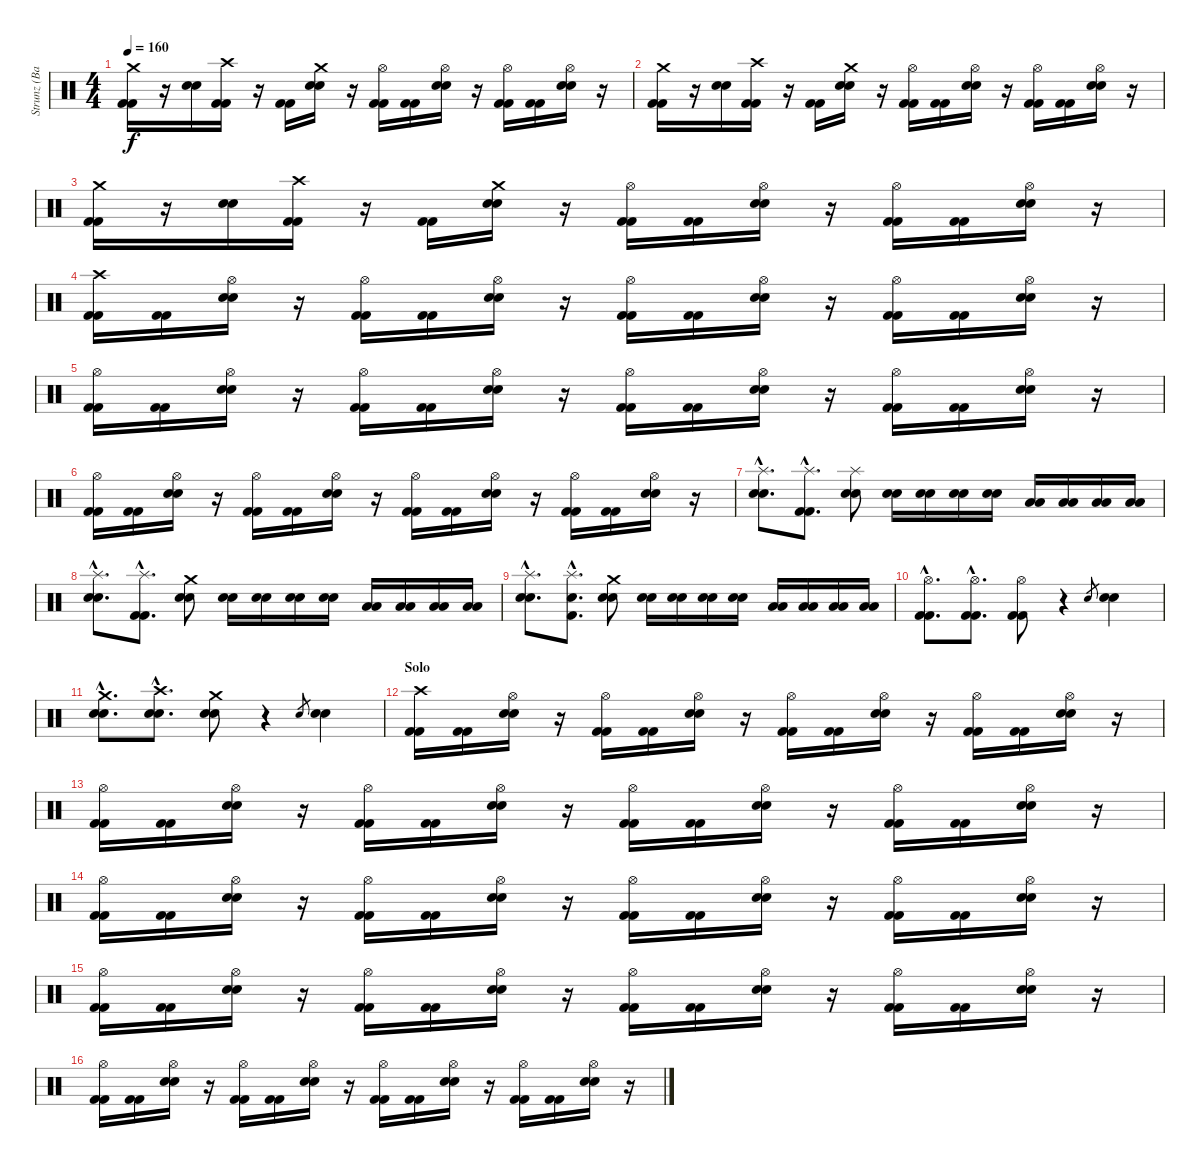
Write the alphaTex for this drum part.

\track ("Strunz (Bateria)" "Strunz (Ba") {instrument percussion}
\staff {score}
\articulation defaults
\ts (4 4)
\tempo 160
\clef neutral
\ks c
("Crash medium (hit)" "Kick (hit) 2" "Kick (hit) 2").16{dy f} r.16 ("Snare (hit) 2" "Snare (hit) 2").16 ("Crash high (hit)" "Kick (hit) 2" "Kick (hit) 2").16 r.16 ("Kick (hit) 2" "Kick (hit) 2").16 ("Crash medium (hit)" "Snare (hit) 2" "Snare (hit) 2").16 r.16 ("Hi-Hat (open)" "Kick (hit) 2" "Kick (hit) 2").16 ("Kick (hit) 2" "Kick (hit) 2").16 ("Hi-Hat (open)" "Snare (hit) 2" "Snare (hit) 2").16 r.16 ("Hi-Hat (open)" "Kick (hit) 2" "Kick (hit) 2").16 ("Kick (hit) 2" "Kick (hit) 2").16 ("Hi-Hat (open)" "Snare (hit) 2" "Snare (hit) 2").16 r.16 |
("Crash medium (hit)" "Kick (hit) 2" "Kick (hit) 2").16 r.16 ("Snare (hit) 2" "Snare (hit) 2").16 ("Crash high (hit)" "Kick (hit) 2" "Kick (hit) 2").16 r.16 ("Kick (hit) 2" "Kick (hit) 2").16 ("Crash medium (hit)" "Snare (hit) 2" "Snare (hit) 2").16 r.16 ("Hi-Hat (open)" "Kick (hit) 2" "Kick (hit) 2").16 ("Kick (hit) 2" "Kick (hit) 2").16 ("Hi-Hat (open)" "Snare (hit) 2" "Snare (hit) 2").16 r.16 ("Hi-Hat (open)" "Kick (hit) 2" "Kick (hit) 2").16 ("Kick (hit) 2" "Kick (hit) 2").16 ("Hi-Hat (open)" "Snare (hit) 2" "Snare (hit) 2").16 r.16 |
("Crash medium (hit)" "Kick (hit) 2" "Kick (hit) 2").16 r.16 ("Snare (hit) 2" "Snare (hit) 2").16 ("Crash high (hit)" "Kick (hit) 2" "Kick (hit) 2").16 r.16 ("Kick (hit) 2" "Kick (hit) 2").16 ("Crash medium (hit)" "Snare (hit) 2" "Snare (hit) 2").16 r.16 ("Hi-Hat (open)" "Kick (hit) 2" "Kick (hit) 2").16 ("Kick (hit) 2" "Kick (hit) 2").16 ("Hi-Hat (open)" "Snare (hit) 2" "Snare (hit) 2").16 r.16 ("Hi-Hat (open)" "Kick (hit) 2" "Kick (hit) 2").16 ("Kick (hit) 2" "Kick (hit) 2").16 ("Hi-Hat (open)" "Snare (hit) 2" "Snare (hit) 2").16 r.16 |
("Crash high (hit)" "Kick (hit) 2" "Kick (hit) 2").16 ("Kick (hit) 2" "Kick (hit) 2").16 ("Hi-Hat (open)" "Snare (hit) 2" "Snare (hit) 2").16 r.16 ("Hi-Hat (open)" "Kick (hit) 2" "Kick (hit) 2").16 ("Kick (hit) 2" "Kick (hit) 2").16 ("Hi-Hat (open)" "Snare (hit) 2" "Snare (hit) 2").16 r.16 ("Hi-Hat (open)" "Kick (hit) 2" "Kick (hit) 2").16 ("Kick (hit) 2" "Kick (hit) 2").16 ("Hi-Hat (open)" "Snare (hit) 2" "Snare (hit) 2").16 r.16 ("Hi-Hat (open)" "Kick (hit) 2" "Kick (hit) 2").16 ("Kick (hit) 2" "Kick (hit) 2").16 ("Hi-Hat (open)" "Snare (hit) 2" "Snare (hit) 2").16 r.16 |
("Hi-Hat (open)" "Kick (hit) 2" "Kick (hit) 2").16 ("Kick (hit) 2" "Kick (hit) 2").16 ("Hi-Hat (open)" "Snare (hit) 2" "Snare (hit) 2").16 r.16 ("Hi-Hat (open)" "Kick (hit) 2" "Kick (hit) 2").16 ("Kick (hit) 2" "Kick (hit) 2").16 ("Hi-Hat (open)" "Snare (hit) 2" "Snare (hit) 2").16 r.16 ("Hi-Hat (open)" "Kick (hit) 2" "Kick (hit) 2").16 ("Kick (hit) 2" "Kick (hit) 2").16 ("Hi-Hat (open)" "Snare (hit) 2" "Snare (hit) 2").16 r.16 ("Hi-Hat (open)" "Kick (hit) 2" "Kick (hit) 2").16 ("Kick (hit) 2" "Kick (hit) 2").16 ("Hi-Hat (open)" "Snare (hit) 2" "Snare (hit) 2").16 r.16 |
("Hi-Hat (open)" "Kick (hit) 2" "Kick (hit) 2").16 ("Kick (hit) 2" "Kick (hit) 2").16 ("Hi-Hat (open)" "Snare (hit) 2" "Snare (hit) 2").16 r.16 ("Hi-Hat (open)" "Kick (hit) 2" "Kick (hit) 2").16 ("Kick (hit) 2" "Kick (hit) 2").16 ("Hi-Hat (open)" "Snare (hit) 2" "Snare (hit) 2").16 r.16 ("Hi-Hat (open)" "Kick (hit) 2" "Kick (hit) 2").16 ("Kick (hit) 2" "Kick (hit) 2").16 ("Hi-Hat (open)" "Snare (hit) 2" "Snare (hit) 2").16 r.16 ("Hi-Hat (open)" "Kick (hit) 2" "Kick (hit) 2").16 ("Kick (hit) 2" "Kick (hit) 2").16 ("Hi-Hat (open)" "Snare (hit) 2" "Snare (hit) 2").16 r.16 |
("Splash (hit)"{hac} "Snare (hit) 2"{hac} "Snare (hit) 2"{hac}).8{d} ("Splash (hit)"{hac} "Kick (hit) 2"{hac} "Kick (hit) 2"{hac}).8{d} ("Splash (hit)" "Snare (hit) 2" "Snare (hit) 2").8 ("Snare (hit) 2" "Snare (hit) 2").16 ("Snare (hit) 2" "Snare (hit) 2").16 ("Snare (hit) 2" "Snare (hit) 2").16 ("Snare (hit) 2" "Snare (hit) 2").16 ("Low Tom (hit)" "Low Tom (hit)").16 ("Low Tom (hit)" "Low Tom (hit)").16 ("Low Floor Tom (hit)" "Low Floor Tom (hit)").16 ("Low Floor Tom (hit)" "Low Floor Tom (hit)").16 |
("Splash (hit)"{hac} "Snare (hit) 2"{hac} "Snare (hit) 2"{hac}).8{d} ("Splash (hit)"{hac} "Kick (hit) 2"{hac} "Kick (hit) 2"{hac}).8{d} ("Crash medium (hit)" "Snare (hit) 2" "Snare (hit) 2").8 ("Snare (hit) 2" "Snare (hit) 2").16 ("Snare (hit) 2" "Snare (hit) 2").16 ("Snare (hit) 2" "Snare (hit) 2").16 ("Snare (hit) 2" "Snare (hit) 2").16 ("Low Tom (hit)" "Low Tom (hit)").16 ("Low Tom (hit)" "Low Tom (hit)").16 ("Low Floor Tom (hit)" "Low Floor Tom (hit)").16 ("Low Floor Tom (hit)" "Low Floor Tom (hit)").16 |
("Splash (hit)"{hac} "Snare (hit) 2"{hac} "Snare (hit) 2"{hac}).8{d} ("Splash (hit)"{hac} "Kick (hit) 2"{hac} "Snare (hit) 2"{hac}).8{d} ("Crash medium (hit)" "Snare (hit) 2" "Snare (hit) 2").8 ("Snare (hit) 2" "Snare (hit) 2").16 ("Snare (hit) 2" "Snare (hit) 2").16 ("Snare (hit) 2" "Snare (hit) 2").16 ("Snare (hit) 2" "Snare (hit) 2").16 ("Low Tom (hit)" "Low Tom (hit)").16 ("Low Tom (hit)" "Low Tom (hit)").16 ("Low Floor Tom (hit)" "Low Floor Tom (hit)").16 ("Low Floor Tom (hit)" "Low Floor Tom (hit)").16 |
("Hi-Hat (open)"{hac} "Kick (hit) 2"{hac} "Kick (hit) 2"{hac}).8{d} ("Hi-Hat (open)"{hac} "Kick (hit) 2"{hac} "Kick (hit) 2"{hac}).8{d} ("Hi-Hat (open)" "Kick (hit) 2" "Kick (hit) 2").8 r.4 "Snare (hit) 2".8{gr} ("Snare (hit) 2" "Snare (hit) 2").4 |
("Crash medium (hit)"{hac} "Snare (hit) 2"{hac} "Snare (hit) 2"{hac}).8{d} ("Crash high (hit)"{hac} "Snare (hit) 2"{hac} "Snare (hit) 2"{hac}).8{d} ("Crash medium (hit)" "Snare (hit) 2" "Snare (hit) 2").8 r.4 "Snare (hit) 2".8{gr} ("Snare (hit) 2" "Snare (hit) 2").4 |
\section ("" "Solo")
("Crash high (hit)" "Kick (hit) 2" "Kick (hit) 2").16 ("Kick (hit) 2" "Kick (hit) 2").16 ("Hi-Hat (open)" "Snare (hit) 2" "Snare (hit) 2").16 r.16 ("Hi-Hat (open)" "Kick (hit) 2" "Kick (hit) 2").16 ("Kick (hit) 2" "Kick (hit) 2").16 ("Hi-Hat (open)" "Snare (hit) 2" "Snare (hit) 2").16 r.16 ("Hi-Hat (open)" "Kick (hit) 2" "Kick (hit) 2").16 ("Kick (hit) 2" "Kick (hit) 2").16 ("Hi-Hat (open)" "Snare (hit) 2" "Snare (hit) 2").16 r.16 ("Hi-Hat (open)" "Kick (hit) 2" "Kick (hit) 2").16 ("Kick (hit) 2" "Kick (hit) 2").16 ("Hi-Hat (open)" "Snare (hit) 2" "Snare (hit) 2").16 r.16 |
("Hi-Hat (open)" "Kick (hit) 2" "Kick (hit) 2").16 ("Kick (hit) 2" "Kick (hit) 2").16 ("Hi-Hat (open)" "Snare (hit) 2" "Snare (hit) 2").16 r.16 ("Hi-Hat (open)" "Kick (hit) 2" "Kick (hit) 2").16 ("Kick (hit) 2" "Kick (hit) 2").16 ("Hi-Hat (open)" "Snare (hit) 2" "Snare (hit) 2").16 r.16 ("Hi-Hat (open)" "Kick (hit) 2" "Kick (hit) 2").16 ("Kick (hit) 2" "Kick (hit) 2").16 ("Hi-Hat (open)" "Snare (hit) 2" "Snare (hit) 2").16 r.16 ("Hi-Hat (open)" "Kick (hit) 2" "Kick (hit) 2").16 ("Kick (hit) 2" "Kick (hit) 2").16 ("Hi-Hat (open)" "Snare (hit) 2" "Snare (hit) 2").16 r.16 |
("Hi-Hat (open)" "Kick (hit) 2" "Kick (hit) 2").16 ("Kick (hit) 2" "Kick (hit) 2").16 ("Hi-Hat (open)" "Snare (hit) 2" "Snare (hit) 2").16 r.16 ("Hi-Hat (open)" "Kick (hit) 2" "Kick (hit) 2").16 ("Kick (hit) 2" "Kick (hit) 2").16 ("Hi-Hat (open)" "Snare (hit) 2" "Snare (hit) 2").16 r.16 ("Hi-Hat (open)" "Kick (hit) 2" "Kick (hit) 2").16 ("Kick (hit) 2" "Kick (hit) 2").16 ("Hi-Hat (open)" "Snare (hit) 2" "Snare (hit) 2").16 r.16 ("Hi-Hat (open)" "Kick (hit) 2" "Kick (hit) 2").16 ("Kick (hit) 2" "Kick (hit) 2").16 ("Hi-Hat (open)" "Snare (hit) 2" "Snare (hit) 2").16 r.16 |
("Hi-Hat (open)" "Kick (hit) 2" "Kick (hit) 2").16 ("Kick (hit) 2" "Kick (hit) 2").16 ("Hi-Hat (open)" "Snare (hit) 2" "Snare (hit) 2").16 r.16 ("Hi-Hat (open)" "Kick (hit) 2" "Kick (hit) 2").16 ("Kick (hit) 2" "Kick (hit) 2").16 ("Hi-Hat (open)" "Snare (hit) 2" "Snare (hit) 2").16 r.16 ("Hi-Hat (open)" "Kick (hit) 2" "Kick (hit) 2").16 ("Kick (hit) 2" "Kick (hit) 2").16 ("Hi-Hat (open)" "Snare (hit) 2" "Snare (hit) 2").16 r.16 ("Hi-Hat (open)" "Kick (hit) 2" "Kick (hit) 2").16 ("Kick (hit) 2" "Kick (hit) 2").16 ("Hi-Hat (open)" "Snare (hit) 2" "Snare (hit) 2").16 r.16 |
("Hi-Hat (open)" "Kick (hit) 2" "Kick (hit) 2").16 ("Kick (hit) 2" "Kick (hit) 2").16 ("Hi-Hat (open)" "Snare (hit) 2" "Snare (hit) 2").16 r.16 ("Hi-Hat (open)" "Kick (hit) 2" "Kick (hit) 2").16 ("Kick (hit) 2" "Kick (hit) 2").16 ("Hi-Hat (open)" "Snare (hit) 2" "Snare (hit) 2").16 r.16 ("Hi-Hat (open)" "Kick (hit) 2" "Kick (hit) 2").16 ("Kick (hit) 2" "Kick (hit) 2").16 ("Hi-Hat (open)" "Snare (hit) 2" "Snare (hit) 2").16 r.16 ("Hi-Hat (open)" "Kick (hit) 2" "Kick (hit) 2").16 ("Kick (hit) 2" "Kick (hit) 2").16 ("Hi-Hat (open)" "Snare (hit) 2" "Snare (hit) 2").16 r.16
